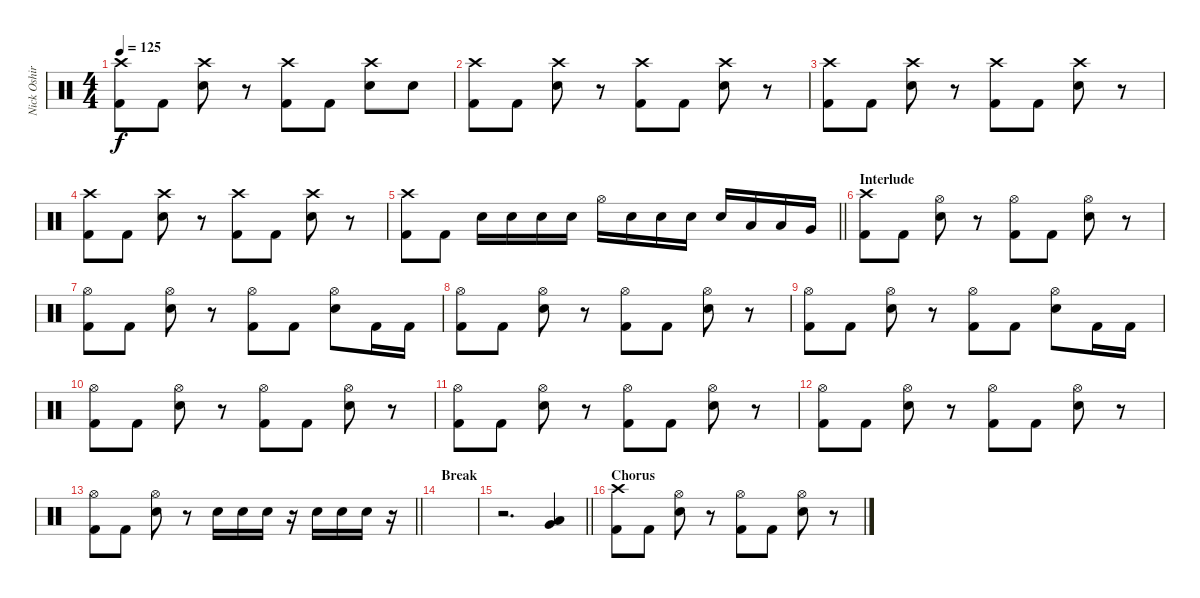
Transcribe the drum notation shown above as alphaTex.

\track ("Nick Oshiro" "Nick Oshir") {instrument percussion}
\staff {score}
\articulation defaults
\ts (4 4)
\tempo 125
\clef neutral
\ks c
("Crash high (hit)" "Kick (hit) 2").8{dy f} "Kick (hit) 2".8 ("Crash high (hit)" "Electric Snare (hit)").8 r.8 ("Crash high (hit)" "Kick (hit) 2").8 "Kick (hit) 2".8 ("Crash high (hit)" "Electric Snare (hit)").8 "Electric Snare (hit)".8 |
("Crash high (hit)" "Kick (hit) 2").8 "Kick (hit) 2".8 ("Crash high (hit)" "Electric Snare (hit)").8 r.8 ("Crash high (hit)" "Kick (hit) 2").8 "Kick (hit) 2".8 ("Crash high (hit)" "Electric Snare (hit)").8 r.8 |
("Crash high (hit)" "Kick (hit) 2").8 "Kick (hit) 2".8 ("Crash high (hit)" "Electric Snare (hit)").8 r.8 ("Crash high (hit)" "Kick (hit) 2").8 "Kick (hit) 2".8 ("Crash high (hit)" "Electric Snare (hit)").8 r.8 |
("Crash high (hit)" "Kick (hit) 2").8 "Kick (hit) 2".8 ("Crash high (hit)" "Electric Snare (hit)").8 r.8 ("Crash high (hit)" "Kick (hit) 2").8 "Kick (hit) 2".8 ("Crash high (hit)" "Electric Snare (hit)").8 r.8 |
\barLineRight lightlight
("Crash high (hit)" "Kick (hit) 2").8 "Kick (hit) 2".8 "Electric Snare (hit)".16 "Electric Snare (hit)".16 "Electric Snare (hit)".16 "Electric Snare (hit)".16 "Hi-Hat (open)".16 "Electric Snare (hit)".16 "Electric Snare (hit)".16 "Electric Snare (hit)".16 "Electric Snare (hit)".16 "Low Tom (hit)".16 "Low Tom (hit)".16 "Very Low Tom (hit)".16 |
\section ("" "Interlude")
("Crash high (hit)" "Kick (hit) 2").8 "Kick (hit) 2".8 ("Hi-Hat (open)" "Electric Snare (hit)").8 r.8 ("Hi-Hat (open)" "Kick (hit) 2").8 "Kick (hit) 2".8 ("Hi-Hat (open)" "Electric Snare (hit)").8 r.8 |
("Hi-Hat (open)" "Kick (hit) 2").8 "Kick (hit) 2".8 ("Hi-Hat (open)" "Electric Snare (hit)").8 r.8 ("Hi-Hat (open)" "Kick (hit) 2").8 "Kick (hit) 2".8 ("Hi-Hat (open)" "Electric Snare (hit)").8 "Kick (hit) 2".16 "Kick (hit) 2".16 |
("Hi-Hat (open)" "Kick (hit) 2").8 "Kick (hit) 2".8 ("Hi-Hat (open)" "Electric Snare (hit)").8 r.8 ("Hi-Hat (open)" "Kick (hit) 2").8 "Kick (hit) 2".8 ("Hi-Hat (open)" "Electric Snare (hit)").8 r.8 |
("Hi-Hat (open)" "Kick (hit) 2").8 "Kick (hit) 2".8 ("Hi-Hat (open)" "Electric Snare (hit)").8 r.8 ("Hi-Hat (open)" "Kick (hit) 2").8 "Kick (hit) 2".8 ("Hi-Hat (open)" "Electric Snare (hit)").8 "Kick (hit) 2".16 "Kick (hit) 2".16 |
("Hi-Hat (open)" "Kick (hit) 2").8 "Kick (hit) 2".8 ("Hi-Hat (open)" "Electric Snare (hit)").8 r.8 ("Hi-Hat (open)" "Kick (hit) 2").8 "Kick (hit) 2".8 ("Hi-Hat (open)" "Electric Snare (hit)").8 r.8 |
("Hi-Hat (open)" "Kick (hit) 2").8 "Kick (hit) 2".8 ("Hi-Hat (open)" "Electric Snare (hit)").8 r.8 ("Hi-Hat (open)" "Kick (hit) 2").8 "Kick (hit) 2".8 ("Hi-Hat (open)" "Electric Snare (hit)").8 r.8 |
("Hi-Hat (open)" "Kick (hit) 2").8 "Kick (hit) 2".8 ("Hi-Hat (open)" "Electric Snare (hit)").8 r.8 ("Hi-Hat (open)" "Kick (hit) 2").8 "Kick (hit) 2".8 ("Hi-Hat (open)" "Electric Snare (hit)").8 r.8 |
\barLineRight lightlight
("Hi-Hat (open)" "Kick (hit) 2").8 "Kick (hit) 2".8 ("Hi-Hat (open)" "Electric Snare (hit)").8 r.8 "Electric Snare (hit)".16 "Electric Snare (hit)".16 "Electric Snare (hit)".16 r.16 "Electric Snare (hit)".16 "Electric Snare (hit)".16 "Electric Snare (hit)".16 r.16 |
\section ("" "Break")
|
\barLineRight lightlight
r.2{d} ("Low Tom (hit)" "Very Low Tom (hit)").4 |
\section ("" "Chorus")
("Crash high (hit)" "Kick (hit) 2").8 "Kick (hit) 2".8 ("Hi-Hat (open)" "Electric Snare (hit)").8 r.8 ("Hi-Hat (open)" "Kick (hit) 2").8 "Kick (hit) 2".8 ("Hi-Hat (open)" "Electric Snare (hit)").8 r.8
